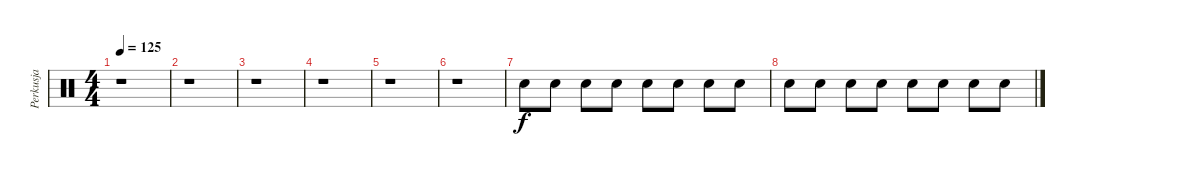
\track ("Perkusja" "Perkusja") {instrument percussion}
\staff {score}
\articulation defaults
\ts (4 4)
\tempo 125
\clef neutral
\ks c
r.1{dy f} |
r.1 |
r.1 |
r.1 |
r.1 |
r.1 |
"Snare (hit) 2".8{volume 8} "Snare (hit) 2".8{volume 8} "Snare (hit) 2".8{volume 8} "Snare (hit) 2".8{volume 8} "Snare (hit) 2".8{volume 8} "Snare (hit) 2".8{volume 8} "Snare (hit) 2".8{volume 8} "Snare (hit) 2".8{volume 8} |
"Snare (hit) 2".8{volume 9} "Snare (hit) 2".8{volume 10} "Snare (hit) 2".8{volume 11} "Snare (hit) 2".8{volume 12} "Snare (hit) 2".8{volume 14} "Snare (hit) 2".8{volume 14} "Snare (hit) 2".8{volume 15} "Snare (hit) 2".8{volume 16}
